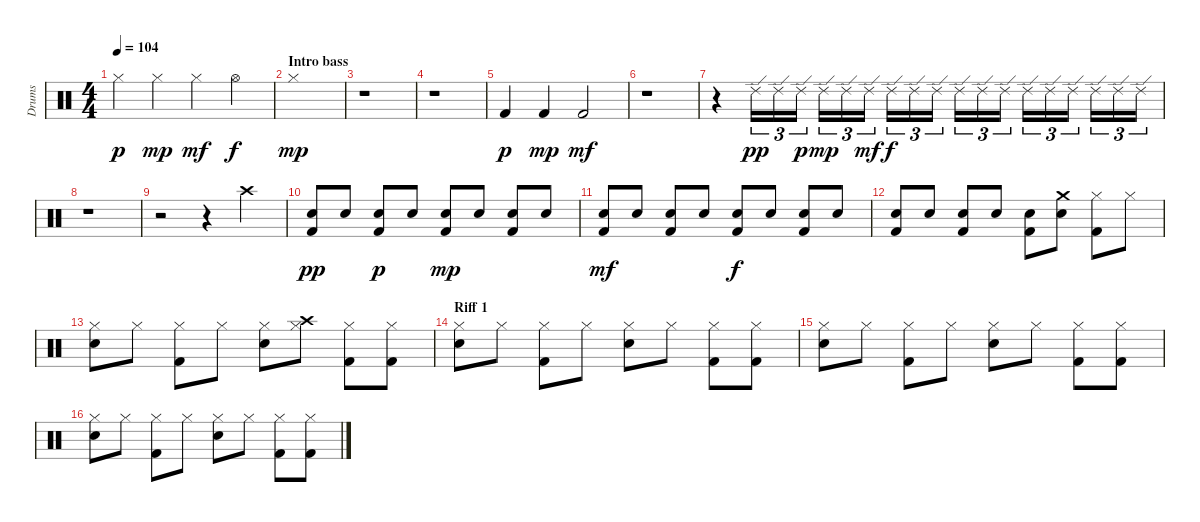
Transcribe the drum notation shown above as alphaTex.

\track ("Drums" "Drums") {instrument percussion}
\staff {score}
\articulation defaults
\ts (4 4)
\tempo 104
\clef neutral
\ks c "Hi-Hat (closed)".4{dy p} "Hi-Hat (closed)".4{dy mp} "Hi-Hat (closed)".4{dy mf} "Hi-Hat (open)".4{dy f}
|
\section ("" "Intro bass")
"Hi-Hat (closed)".1{dy mp} |
r.1 |
r.1 |
"Kick (hit) 2".4{dy p} "Kick (hit) 2".4{dy mp} "Kick (hit) 2".2{dy mf} |
r.1 |
r.4 "Ride (edge) 2".16{tu (3 2) dy pp} "Ride (edge) 2".16{tu (3 2)} "Ride (edge) 2".16{tu (3 2) dy p} "Ride (edge) 2".16{tu (3 2) dy mp} "Ride (edge) 2".16{tu (3 2)} "Ride (edge) 2".16{tu (3 2) dy mf} "Ride (edge) 2".16{tu (3 2) dy f} "Ride (edge) 2".16{tu (3 2)} "Ride (edge) 2".16{tu (3 2)} "Ride (edge) 2".16{tu (3 2)} "Ride (edge) 2".16{tu (3 2)} "Ride (edge) 2".16{tu (3 2)} "Ride (edge) 2".16{tu (3 2)} "Ride (edge) 2".16{tu (3 2)} "Ride (edge) 2".16{tu (3 2)} "Ride (edge) 2".16{tu (3 2)} "Ride (edge) 2".16{tu (3 2)} "Ride (edge) 2".16{tu (3 2)} |
r.1 |
r.2 r.4 "Crash high (hit)".4 |
("Snare (hit) 2" "Kick (hit) 2").8{dy pp} "Snare (hit) 2".8 ("Snare (hit) 2" "Kick (hit) 2").8{dy p} "Snare (hit) 2".8 ("Snare (hit) 2" "Kick (hit) 2").8{dy mp} "Snare (hit) 2".8 ("Snare (hit) 2" "Kick (hit) 2").8 "Snare (hit) 2".8 |
("Snare (hit) 2" "Kick (hit) 2").8{dy mf} "Snare (hit) 2".8 ("Snare (hit) 2" "Kick (hit) 2").8 "Snare (hit) 2".8 ("Snare (hit) 2" "Kick (hit) 2").8{dy f} "Snare (hit) 2".8 ("Snare (hit) 2" "Kick (hit) 2").8 "Snare (hit) 2".8 |
("Snare (hit) 2" "Kick (hit) 2").8 "Snare (hit) 2".8 ("Snare (hit) 2" "Kick (hit) 2").8 "Snare (hit) 2".8 ("Snare (hit) 2" "Kick (hit) 2").8 ("Snare (hit) 2" "Crash medium (hit)").8 ("Hi-Hat (closed)" "Kick (hit) 2").8 "Hi-Hat (closed)".8 |
("Hi-Hat (closed)" "Snare (hit) 2").8 "Hi-Hat (closed)".8 ("Hi-Hat (closed)" "Kick (hit) 2").8 "Hi-Hat (closed)".8 ("Hi-Hat (closed)" "Snare (hit) 2").8 ("Hi-Hat (closed)" "Crash high (hit)").8 ("Hi-Hat (closed)" "Kick (hit) 2").8 ("Hi-Hat (closed)" "Kick (hit) 2").8 |
\section ("" "Riff 1")
("Hi-Hat (closed)" "Snare (hit) 2").8 "Hi-Hat (closed)".8 ("Hi-Hat (closed)" "Kick (hit) 2").8 "Hi-Hat (closed)".8 ("Hi-Hat (closed)" "Snare (hit) 2").8 "Hi-Hat (closed)".8 ("Hi-Hat (closed)" "Kick (hit) 2").8 ("Hi-Hat (closed)" "Kick (hit) 2").8 |
("Hi-Hat (closed)" "Snare (hit) 2").8 "Hi-Hat (closed)".8 ("Hi-Hat (closed)" "Kick (hit) 2").8 "Hi-Hat (closed)".8 ("Hi-Hat (closed)" "Snare (hit) 2").8 "Hi-Hat (closed)".8 ("Hi-Hat (closed)" "Kick (hit) 2").8 ("Hi-Hat (closed)" "Kick (hit) 2").8 |
("Hi-Hat (closed)" "Snare (hit) 2").8 "Hi-Hat (closed)".8 ("Hi-Hat (closed)" "Kick (hit) 2").8 "Hi-Hat (closed)".8 ("Hi-Hat (closed)" "Snare (hit) 2").8 "Hi-Hat (closed)".8 ("Hi-Hat (closed)" "Kick (hit) 2").8 ("Hi-Hat (closed)" "Kick (hit) 2").8
